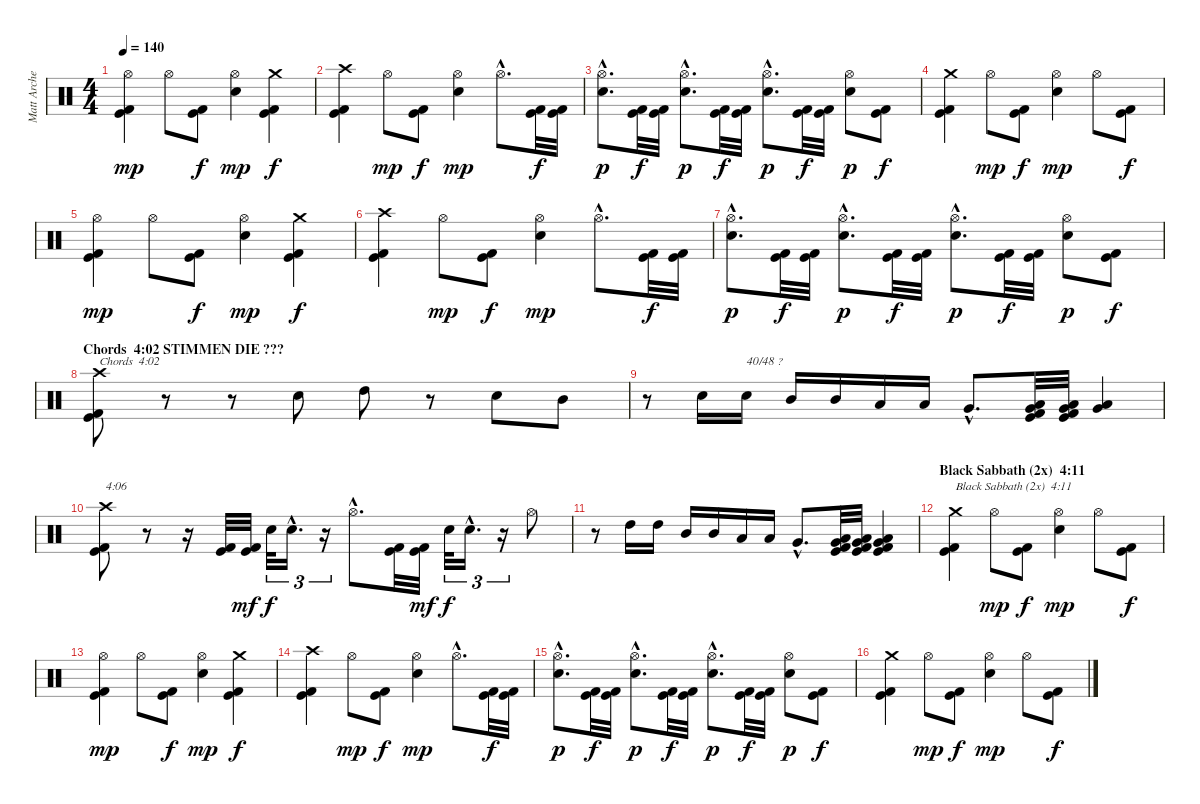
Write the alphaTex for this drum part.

\track ("Matt Archer" "Matt Arche") {instrument percussion}
\staff {score}
\articulation defaults
\ts (4 4)
\tempo 140
\clef neutral
\ks c
("Kick (hit)" "Kick (hit) 2" "Hi-Hat (open)").4{dy mp} "Hi-Hat (open)".8 ("Kick (hit)" "Kick (hit) 2").8{dy f} ("Electric Snare (hit)" "Hi-Hat (open)").4{dy mp} ("Kick (hit)" "Kick (hit) 2" "Crash medium (hit)").4{dy f} |
("Kick (hit)" "Kick (hit) 2" "Crash high (hit)").4 "Hi-Hat (open)".8{dy mp} ("Kick (hit)" "Kick (hit) 2").8{dy f} ("Electric Snare (hit)" "Hi-Hat (open)").4{dy mp} "Hi-Hat (open)"{hac}.8{d} ("Kick (hit)" "Kick (hit) 2").32{dy f} ("Kick (hit)" "Kick (hit) 2").32 |
("Electric Snare (hit)"{hac} "Hi-Hat (open)"{hac}).8{d dy p} ("Kick (hit)" "Kick (hit) 2").32{dy f} ("Kick (hit)" "Kick (hit) 2").32 ("Electric Snare (hit)"{hac} "Hi-Hat (open)"{hac}).8{d dy p} ("Kick (hit)" "Kick (hit) 2").32{dy f} ("Kick (hit)" "Kick (hit) 2").32 ("Electric Snare (hit)"{hac} "Hi-Hat (open)"{hac}).8{d dy p} ("Kick (hit)" "Kick (hit) 2").32{dy f} ("Kick (hit)" "Kick (hit) 2").32 ("Electric Snare (hit)" "Hi-Hat (open)").8{dy p} ("Kick (hit)" "Kick (hit) 2").8{dy f} |
("Kick (hit)" "Kick (hit) 2" "Crash medium (hit)").4 "Hi-Hat (open)".8{dy mp} ("Kick (hit)" "Kick (hit) 2").8{dy f} ("Electric Snare (hit)" "Hi-Hat (open)").4{dy mp} "Hi-Hat (open)".8 ("Kick (hit)" "Kick (hit) 2").8{dy f} |
("Kick (hit)" "Kick (hit) 2" "Hi-Hat (open)").4{dy mp} "Hi-Hat (open)".8 ("Kick (hit)" "Kick (hit) 2").8{dy f} ("Electric Snare (hit)" "Hi-Hat (open)").4{dy mp} ("Kick (hit)" "Kick (hit) 2" "Crash medium (hit)").4{dy f} |
("Kick (hit)" "Kick (hit) 2" "Crash high (hit)").4 "Hi-Hat (open)".8{dy mp} ("Kick (hit)" "Kick (hit) 2").8{dy f} ("Electric Snare (hit)" "Hi-Hat (open)").4{dy mp} "Hi-Hat (open)"{hac}.8{d} ("Kick (hit)" "Kick (hit) 2").32{dy f} ("Kick (hit)" "Kick (hit) 2").32 |
("Electric Snare (hit)"{hac} "Hi-Hat (open)"{hac}).8{d dy p} ("Kick (hit)" "Kick (hit) 2").32{dy f} ("Kick (hit)" "Kick (hit) 2").32 ("Electric Snare (hit)"{hac} "Hi-Hat (open)"{hac}).8{d dy p} ("Kick (hit)" "Kick (hit) 2").32{dy f} ("Kick (hit)" "Kick (hit) 2").32 ("Electric Snare (hit)"{hac} "Hi-Hat (open)"{hac}).8{d dy p} ("Kick (hit)" "Kick (hit) 2").32{dy f} ("Kick (hit)" "Kick (hit) 2").32 ("Electric Snare (hit)" "Hi-Hat (open)").8{dy p} ("Kick (hit)" "Kick (hit) 2").8{dy f} |
\section ("" "Chords  4:02 STIMMEN DIE ???")
("Kick (hit)" "Kick (hit) 2" "Crash high (hit)").8{txt "Chords  4:02"} r.8 r.8 "Electric Snare (hit)".8 "High Tom (hit)".8 r.8 "Electric Snare (hit)".8 "Mid Tom (hit)".8 |
r.8 "Electric Snare (hit)".16 "Electric Snare (hit)".16{txt "40/48 ?"} "Mid Tom (hit)".16 "Mid Tom (hit)".16 "Low Tom (hit)".16 "Low Tom (hit)".16 "Very Low Tom (hit)"{hac}.8{d} ("Kick (hit)" "Kick (hit) 2" "Low Tom (hit)" "Very Low Tom (hit)").32 ("Kick (hit)" "Kick (hit) 2" "Low Tom (hit)" "Very Low Tom (hit)").32 ("Low Tom (hit)" "Very Low Tom (hit)").4 |
("Kick (hit)" "Kick (hit) 2" "Crash high (hit)").8{txt "4:06"} r.8 r.16 ("Kick (hit)" "Kick (hit) 2").32 ("Kick (hit)" "Kick (hit) 2").32{dy mf} "Electric Snare (hit)".32{tu (3 2) dy f} "Electric Snare (hit)"{hac}.16{d tu (3 2)} r.16{tu (3 2)} "Hi-Hat (open)"{hac}.8{d} ("Kick (hit)" "Kick (hit) 2").32 ("Kick (hit)" "Kick (hit) 2").32{dy mf} "Electric Snare (hit)".32{tu (3 2) dy f} "Electric Snare (hit)"{hac}.16{d tu (3 2)} r.16{tu (3 2)} "Hi-Hat (open)".8 |
r.8 "High Tom (hit)".16 "High Tom (hit)".16 "Mid Tom (hit)".16 "Mid Tom (hit)".16 "Low Tom (hit)".16 "Low Tom (hit)".16 "Very Low Tom (hit)"{hac}.8{d} ("Kick (hit)" "Kick (hit) 2" "Low Tom (hit)" "Very Low Tom (hit)").32 ("Kick (hit)" "Kick (hit) 2" "Low Tom (hit)" "Very Low Tom (hit)").32 ("Kick (hit)" "Kick (hit) 2" "Low Tom (hit)" "Very Low Tom (hit)").4 |
\section ("" "Black Sabbath (2x)  4:11")
("Kick (hit)" "Kick (hit) 2" "Crash medium (hit)").4{txt "Black Sabbath (2x)  4:11"} "Hi-Hat (open)".8{dy mp} ("Kick (hit)" "Kick (hit) 2").8{dy f} ("Electric Snare (hit)" "Hi-Hat (open)").4{dy mp} "Hi-Hat (open)".8 ("Kick (hit)" "Kick (hit) 2").8{dy f} |
("Kick (hit)" "Kick (hit) 2" "Hi-Hat (open)").4{dy mp} "Hi-Hat (open)".8 ("Kick (hit)" "Kick (hit) 2").8{dy f} ("Electric Snare (hit)" "Hi-Hat (open)").4{dy mp} ("Kick (hit)" "Kick (hit) 2" "Crash medium (hit)").4{dy f} |
("Kick (hit)" "Kick (hit) 2" "Crash high (hit)").4 "Hi-Hat (open)".8{dy mp} ("Kick (hit)" "Kick (hit) 2").8{dy f} ("Electric Snare (hit)" "Hi-Hat (open)").4{dy mp} "Hi-Hat (open)"{hac}.8{d} ("Kick (hit)" "Kick (hit) 2").32{dy f} ("Kick (hit)" "Kick (hit) 2").32 |
("Electric Snare (hit)"{hac} "Hi-Hat (open)"{hac}).8{d dy p} ("Kick (hit)" "Kick (hit) 2").32{dy f} ("Kick (hit)" "Kick (hit) 2").32 ("Electric Snare (hit)"{hac} "Hi-Hat (open)"{hac}).8{d dy p} ("Kick (hit)" "Kick (hit) 2").32{dy f} ("Kick (hit)" "Kick (hit) 2").32 ("Electric Snare (hit)"{hac} "Hi-Hat (open)"{hac}).8{d dy p} ("Kick (hit)" "Kick (hit) 2").32{dy f} ("Kick (hit)" "Kick (hit) 2").32 ("Electric Snare (hit)" "Hi-Hat (open)").8{dy p} ("Kick (hit)" "Kick (hit) 2").8{dy f} |
("Kick (hit)" "Kick (hit) 2" "Crash medium (hit)").4 "Hi-Hat (open)".8{dy mp} ("Kick (hit)" "Kick (hit) 2").8{dy f} ("Electric Snare (hit)" "Hi-Hat (open)").4{dy mp} "Hi-Hat (open)".8 ("Kick (hit)" "Kick (hit) 2").8{dy f}
